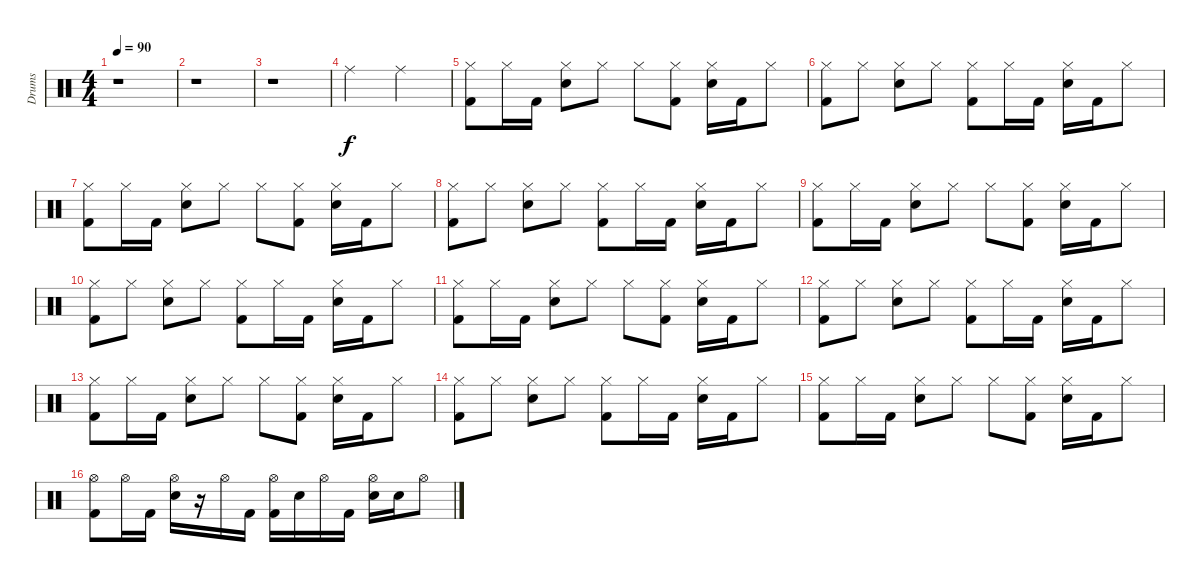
\track ("Drums" "Drums") {instrument percussion}
\staff {score}
\articulation defaults
\ts (4 4)
\tempo 90
\clef neutral
\ks c
r.1{dy f} |
r.1 |
r.1 |
"Ride (middle)".2 "Ride (middle)".2 |
("Hi-Hat (closed)" "Kick (hit) 2").8 "Hi-Hat (closed)".16 "Kick (hit) 2".16 ("Hi-Hat (closed)" "Snare (hit) 2").8 "Hi-Hat (closed)".8 "Hi-Hat (closed)".8 ("Hi-Hat (closed)" "Kick (hit) 2").8 ("Hi-Hat (closed)" "Snare (hit) 2").16 "Kick (hit) 2".16 "Hi-Hat (closed)".8 |
("Hi-Hat (closed)" "Kick (hit) 2").8 "Hi-Hat (closed)".8 ("Hi-Hat (closed)" "Snare (hit) 2").8 "Hi-Hat (closed)".8 ("Hi-Hat (closed)" "Kick (hit) 2").8 "Hi-Hat (closed)".16 "Kick (hit) 2".16 ("Hi-Hat (closed)" "Snare (hit) 2").16 "Kick (hit) 2".16 "Hi-Hat (closed)".8 |
("Hi-Hat (closed)" "Kick (hit) 2").8 "Hi-Hat (closed)".16 "Kick (hit) 2".16 ("Hi-Hat (closed)" "Snare (hit) 2").8 "Hi-Hat (closed)".8 "Hi-Hat (closed)".8 ("Hi-Hat (closed)" "Kick (hit) 2").8 ("Hi-Hat (closed)" "Snare (hit) 2").16 "Kick (hit) 2".16 "Hi-Hat (closed)".8 |
("Hi-Hat (closed)" "Kick (hit) 2").8 "Hi-Hat (closed)".8 ("Hi-Hat (closed)" "Snare (hit) 2").8 "Hi-Hat (closed)".8 ("Hi-Hat (closed)" "Kick (hit) 2").8 "Hi-Hat (closed)".16 "Kick (hit) 2".16 ("Hi-Hat (closed)" "Snare (hit) 2").16 "Kick (hit) 2".16 "Hi-Hat (closed)".8 |
("Hi-Hat (closed)" "Kick (hit) 2").8 "Hi-Hat (closed)".16 "Kick (hit) 2".16 ("Hi-Hat (closed)" "Snare (hit) 2").8 "Hi-Hat (closed)".8 "Hi-Hat (closed)".8 ("Hi-Hat (closed)" "Kick (hit) 2").8 ("Hi-Hat (closed)" "Snare (hit) 2").16 "Kick (hit) 2".16 "Hi-Hat (closed)".8 |
("Hi-Hat (closed)" "Kick (hit) 2").8 "Hi-Hat (closed)".8 ("Hi-Hat (closed)" "Snare (hit) 2").8 "Hi-Hat (closed)".8 ("Hi-Hat (closed)" "Kick (hit) 2").8 "Hi-Hat (closed)".16 "Kick (hit) 2".16 ("Hi-Hat (closed)" "Snare (hit) 2").16 "Kick (hit) 2".16 "Hi-Hat (closed)".8 |
("Hi-Hat (closed)" "Kick (hit) 2").8 "Hi-Hat (closed)".16 "Kick (hit) 2".16 ("Hi-Hat (closed)" "Snare (hit) 2").8 "Hi-Hat (closed)".8 "Hi-Hat (closed)".8 ("Hi-Hat (closed)" "Kick (hit) 2").8 ("Hi-Hat (closed)" "Snare (hit) 2").16 "Kick (hit) 2".16 "Hi-Hat (closed)".8 |
("Hi-Hat (closed)" "Kick (hit) 2").8 "Hi-Hat (closed)".8 ("Hi-Hat (closed)" "Snare (hit) 2").8 "Hi-Hat (closed)".8 ("Hi-Hat (closed)" "Kick (hit) 2").8 "Hi-Hat (closed)".16 "Kick (hit) 2".16 ("Hi-Hat (closed)" "Snare (hit) 2").16 "Kick (hit) 2".16 "Hi-Hat (closed)".8 |
("Hi-Hat (closed)" "Kick (hit) 2").8 "Hi-Hat (closed)".16 "Kick (hit) 2".16 ("Hi-Hat (closed)" "Snare (hit) 2").8 "Hi-Hat (closed)".8 "Hi-Hat (closed)".8 ("Hi-Hat (closed)" "Kick (hit) 2").8 ("Hi-Hat (closed)" "Snare (hit) 2").16 "Kick (hit) 2".16 "Hi-Hat (closed)".8 |
("Hi-Hat (closed)" "Kick (hit) 2").8 "Hi-Hat (closed)".8 ("Hi-Hat (closed)" "Snare (hit) 2").8 "Hi-Hat (closed)".8 ("Hi-Hat (closed)" "Kick (hit) 2").8 "Hi-Hat (closed)".16 "Kick (hit) 2".16 ("Hi-Hat (closed)" "Snare (hit) 2").16 "Kick (hit) 2".16 "Hi-Hat (closed)".8 |
("Hi-Hat (closed)" "Kick (hit) 2").8 "Hi-Hat (closed)".16 "Kick (hit) 2".16 ("Hi-Hat (closed)" "Snare (hit) 2").8 "Hi-Hat (closed)".8 "Hi-Hat (closed)".8 ("Hi-Hat (closed)" "Kick (hit) 2").8 ("Hi-Hat (closed)" "Snare (hit) 2").16 "Kick (hit) 2".16 "Hi-Hat (closed)".8 |
("Hi-Hat (open)" "Kick (hit) 2").8 "Hi-Hat (open)".16 "Kick (hit) 2".16 ("Hi-Hat (open)" "Snare (hit) 2").16 r.16 "Hi-Hat (open)".16 "Kick (hit) 2".16 ("Hi-Hat (open)" "Kick (hit) 2").16 "Snare (hit) 2".16 "Hi-Hat (open)".16 "Kick (hit) 2".16 ("Hi-Hat (open)" "Snare (hit) 2").16 "Snare (hit) 2".16 "Hi-Hat (open)".8
